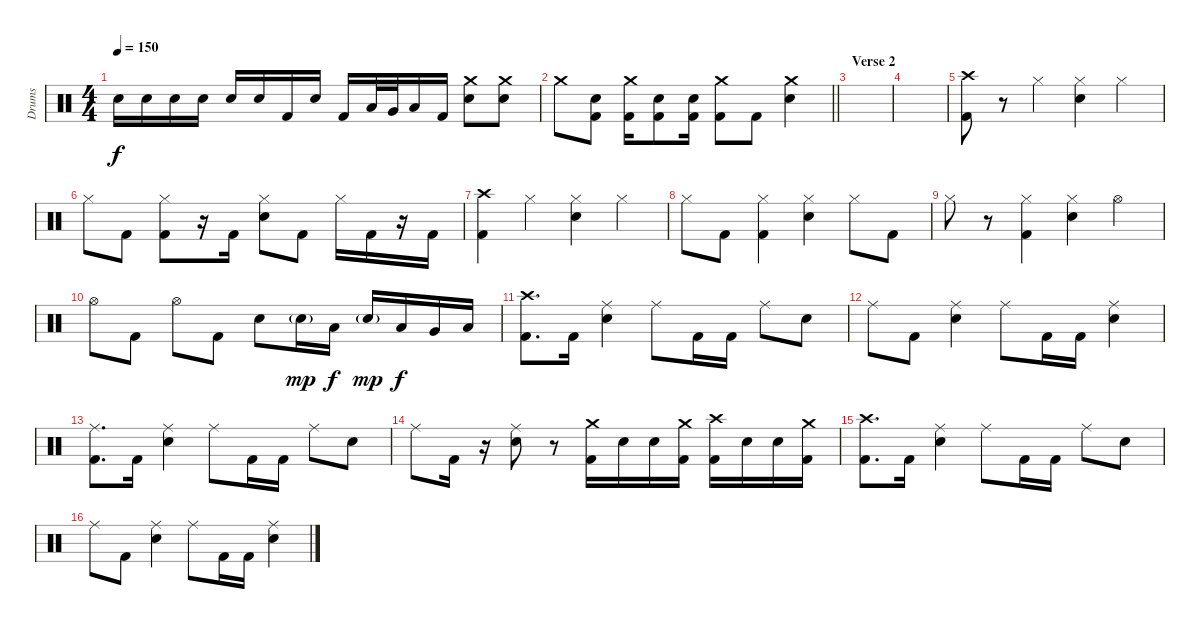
\track ("Drums" "Drums") {instrument percussion}
\staff {score}
\articulation defaults
\ts (4 4)
\tempo 150
\clef neutral
\ks c "Snare (hit) 2".16{dy f} "Snare (hit) 2".16 "Snare (hit) 2".16 "Snare (hit) 2".16 "Snare (hit) 2".16 "Snare (hit) 2".16 "Kick (hit) 2".16 "Snare (hit) 2".16 "Kick (hit) 2".16 "Low Tom (hit)".32 "Very Low Tom (hit)".32 "Low Tom (hit)".16 "Kick (hit) 2".16
("Crash medium (hit)" "Snare (hit) 2").8 ("Crash medium (hit)" "Snare (hit) 2").8 |
\barLineRight lightlight "Crash medium (hit)".8
("Snare (hit) 2" "Kick (hit) 2").8 ("Crash medium (hit)" "Kick (hit) 2").16 ("Snare (hit) 2" "Kick (hit) 2").8 ("Snare (hit) 2" "Kick (hit) 2").16 ("Crash medium (hit)" "Kick (hit) 2").8 "Kick (hit) 2".8 ("Crash medium (hit)" "Snare (hit) 2").4 |
\section ("" "Verse 2")
|
|
("Crash high (hit)" "Kick (hit) 2").8 r.8 "Hi-Hat (closed)".4 ("Hi-Hat (closed)" "Snare (hit) 2").4 "Hi-Hat (closed)".4 |
"Hi-Hat (closed)".8 "Kick (hit) 2".8 ("Hi-Hat (closed)" "Kick (hit) 2").8 r.16 "Kick (hit) 2".16 ("Hi-Hat (closed)" "Snare (hit) 2").8 "Kick (hit) 2".8 "Hi-Hat (closed)".16 "Kick (hit) 2".16 r.16 "Kick (hit) 2".16 |
("Crash high (hit)" "Kick (hit) 2").4 "Hi-Hat (closed)".4 ("Hi-Hat (closed)" "Snare (hit) 2").4 "Hi-Hat (closed)".4 |
"Hi-Hat (closed)".8 "Kick (hit) 2".8 ("Hi-Hat (closed)" "Kick (hit) 2").4 ("Hi-Hat (closed)" "Snare (hit) 2").4 "Hi-Hat (closed)".8 "Kick (hit) 2".8 |
"Hi-Hat (closed)".8 r.8 ("Hi-Hat (closed)" "Kick (hit) 2").4 ("Hi-Hat (closed)" "Snare (hit) 2").4 "Hi-Hat (open)".4 |
"Hi-Hat (open)".8 "Kick (hit) 2".8 "Hi-Hat (open)".8 "Kick (hit) 2".8 "Snare (hit) 2".8 "Snare (hit) 2"{g}.16{dy mp} "Low Tom (hit)".16{dy f} "Snare (hit) 2"{g}.16{dy mp} "Low Tom (hit)".16{dy f} "Very Low Tom (hit)".16 "Low Floor Tom (hit)".16 |
("Crash high (hit)" "Kick (hit) 2").8{d} "Kick (hit) 2".16 ("Ride (middle)" "Snare (hit) 2").4 "Ride (middle)".8 "Kick (hit) 2".16 "Kick (hit) 2".16 "Ride (middle)".8 "Snare (hit) 2".8 |
"Ride (middle)".8 "Kick (hit) 2".8 ("Ride (middle)" "Snare (hit) 2").4 "Ride (middle)".8 "Kick (hit) 2".16 "Kick (hit) 2".16 ("Ride (middle)" "Snare (hit) 2").4 |
("Ride (middle)" "Kick (hit) 2").8{d} "Kick (hit) 2".16 ("Ride (middle)" "Snare (hit) 2").4 "Ride (middle)".8 "Kick (hit) 2".16 "Kick (hit) 2".16 "Ride (middle)".8 "Snare (hit) 2".8 |
"Ride (middle)".8 "Kick (hit) 2".16 r.16 ("Ride (middle)" "Snare (hit) 2").8 r.8 ("Crash medium (hit)" "Kick (hit) 2").16 "Snare (hit) 2".16 "Snare (hit) 2".16 ("Crash medium (hit)" "Kick (hit) 2").16 ("Crash high (hit)" "Kick (hit) 2").16 "Snare (hit) 2".16 "Snare (hit) 2".16 ("Crash medium (hit)" "Kick (hit) 2").16 |
("Crash high (hit)" "Kick (hit) 2").8{d} "Kick (hit) 2".16 ("Ride (middle)" "Snare (hit) 2").4 "Ride (middle)".8 "Kick (hit) 2".16 "Kick (hit) 2".16 "Ride (middle)".8 "Snare (hit) 2".8 |
"Ride (middle)".8 "Kick (hit) 2".8 ("Ride (middle)" "Snare (hit) 2").4 "Ride (middle)".8 "Kick (hit) 2".16 "Kick (hit) 2".16 ("Ride (middle)" "Snare (hit) 2").4
